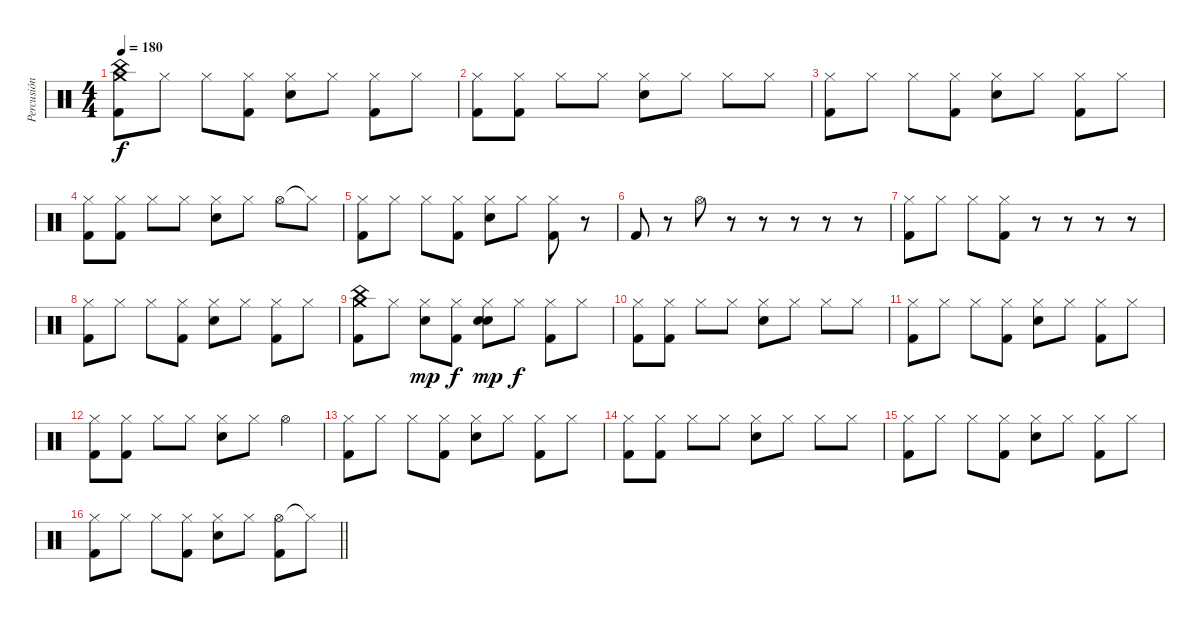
\track ("Percusión" "Percusión") {instrument percussion}
\staff {score}
\articulation defaults
\ts (4 4)
\tempo 180
\clef neutral
\ks c
("Crash medium (hit)" "China (hit)" "Kick (hit) 2").8{dy f} "Hi-Hat (closed)".8 "Hi-Hat (closed)".8 ("Hi-Hat (closed)" "Kick (hit) 2").8 ("Hi-Hat (closed)" "Snare (hit) 2").8 "Hi-Hat (closed)".8 ("Hi-Hat (closed)" "Kick (hit) 2").8 "Hi-Hat (closed)".8 |
("Hi-Hat (closed)" "Kick (hit) 2").8 ("Hi-Hat (closed)" "Kick (hit) 2").8 "Hi-Hat (closed)".8 "Hi-Hat (closed)".8 ("Hi-Hat (closed)" "Snare (hit) 2").8 "Hi-Hat (closed)".8 "Hi-Hat (closed)".8 "Hi-Hat (closed)".8 |
("Hi-Hat (closed)" "Kick (hit) 2").8 "Hi-Hat (closed)".8 "Hi-Hat (closed)".8 ("Hi-Hat (closed)" "Kick (hit) 2").8 ("Hi-Hat (closed)" "Snare (hit) 2").8 "Hi-Hat (closed)".8 ("Hi-Hat (closed)" "Kick (hit) 2").8 "Hi-Hat (closed)".8 |
("Hi-Hat (closed)" "Kick (hit) 2").8 ("Hi-Hat (closed)" "Kick (hit) 2").8 "Hi-Hat (closed)".8 "Hi-Hat (closed)".8 ("Hi-Hat (closed)" "Snare (hit) 2").8 "Hi-Hat (closed)".8 "Hi-Hat (open)".8 "Hi-Hat (closed)"{t}.8 |
("Hi-Hat (closed)" "Kick (hit) 2").8 "Hi-Hat (closed)".8 "Hi-Hat (closed)".8 ("Hi-Hat (closed)" "Kick (hit) 2").8 ("Hi-Hat (closed)" "Snare (hit) 2").8 "Hi-Hat (closed)".8 ("Hi-Hat (closed)" "Kick (hit) 2").8 r.8 |
"Kick (hit) 2".8 r.8 "Hi-Hat (open)".8 r.8 r.8 r.8 r.8 r.8 |
("Hi-Hat (closed)" "Kick (hit) 2").8 "Hi-Hat (closed)".8 "Hi-Hat (closed)".8 ("Hi-Hat (closed)" "Kick (hit) 2").8 r.8 r.8 r.8 r.8 |
("Hi-Hat (closed)" "Kick (hit) 2").8 "Hi-Hat (closed)".8 "Hi-Hat (closed)".8 ("Hi-Hat (closed)" "Kick (hit) 2").8 ("Hi-Hat (closed)" "Snare (hit) 2").8 "Hi-Hat (closed)".8 ("Hi-Hat (closed)" "Kick (hit) 2").8 "Hi-Hat (closed)".8 |
("Crash medium (hit)" "China (hit)" "Kick (hit) 2").8 "Hi-Hat (closed)".8 ("Hi-Hat (closed)" "Electric Snare (hit)").8{dy mp} ("Hi-Hat (closed)" "Kick (hit) 2").8{dy f} ("Hi-Hat (closed)" "Electric Snare (hit)" "Snare (hit) 2").8{dy mp} "Hi-Hat (closed)".8{dy f} ("Hi-Hat (closed)" "Kick (hit) 2").8 "Hi-Hat (closed)".8 |
("Hi-Hat (closed)" "Kick (hit) 2").8 ("Hi-Hat (closed)" "Kick (hit) 2").8 "Hi-Hat (closed)".8 "Hi-Hat (closed)".8 ("Hi-Hat (closed)" "Snare (hit) 2").8 "Hi-Hat (closed)".8 "Hi-Hat (closed)".8 "Hi-Hat (closed)".8 |
("Hi-Hat (closed)" "Kick (hit) 2").8 "Hi-Hat (closed)".8 "Hi-Hat (closed)".8 ("Hi-Hat (closed)" "Kick (hit) 2").8 ("Hi-Hat (closed)" "Snare (hit) 2").8 "Hi-Hat (closed)".8 ("Hi-Hat (closed)" "Kick (hit) 2").8 "Hi-Hat (closed)".8 |
("Hi-Hat (closed)" "Kick (hit) 2").8 ("Hi-Hat (closed)" "Kick (hit) 2").8 "Hi-Hat (closed)".8 "Hi-Hat (closed)".8 ("Hi-Hat (closed)" "Snare (hit) 2").8 "Hi-Hat (closed)".8 "Hi-Hat (open)".4 |
("Hi-Hat (closed)" "Kick (hit) 2").8 "Hi-Hat (closed)".8 "Hi-Hat (closed)".8 ("Hi-Hat (closed)" "Kick (hit) 2").8 ("Hi-Hat (closed)" "Snare (hit) 2").8 "Hi-Hat (closed)".8 ("Hi-Hat (closed)" "Kick (hit) 2").8 "Hi-Hat (closed)".8 |
("Hi-Hat (closed)" "Kick (hit) 2").8 ("Hi-Hat (closed)" "Kick (hit) 2").8 "Hi-Hat (closed)".8 "Hi-Hat (closed)".8 ("Hi-Hat (closed)" "Snare (hit) 2").8 "Hi-Hat (closed)".8 "Hi-Hat (closed)".8 "Hi-Hat (closed)".8 |
("Hi-Hat (closed)" "Kick (hit) 2").8 "Hi-Hat (closed)".8 "Hi-Hat (closed)".8 ("Hi-Hat (closed)" "Kick (hit) 2").8 ("Hi-Hat (closed)" "Snare (hit) 2").8 "Hi-Hat (closed)".8 ("Hi-Hat (closed)" "Kick (hit) 2").8 "Hi-Hat (closed)".8 |
\barLineRight lightlight
("Hi-Hat (closed)" "Kick (hit) 2").8 "Hi-Hat (closed)".8 "Hi-Hat (closed)".8 ("Hi-Hat (closed)" "Kick (hit) 2").8 ("Hi-Hat (closed)" "Snare (hit) 2").8 "Hi-Hat (closed)".8 ("Hi-Hat (open)" "Kick (hit) 2").8 "Hi-Hat (closed)"{t}.8
